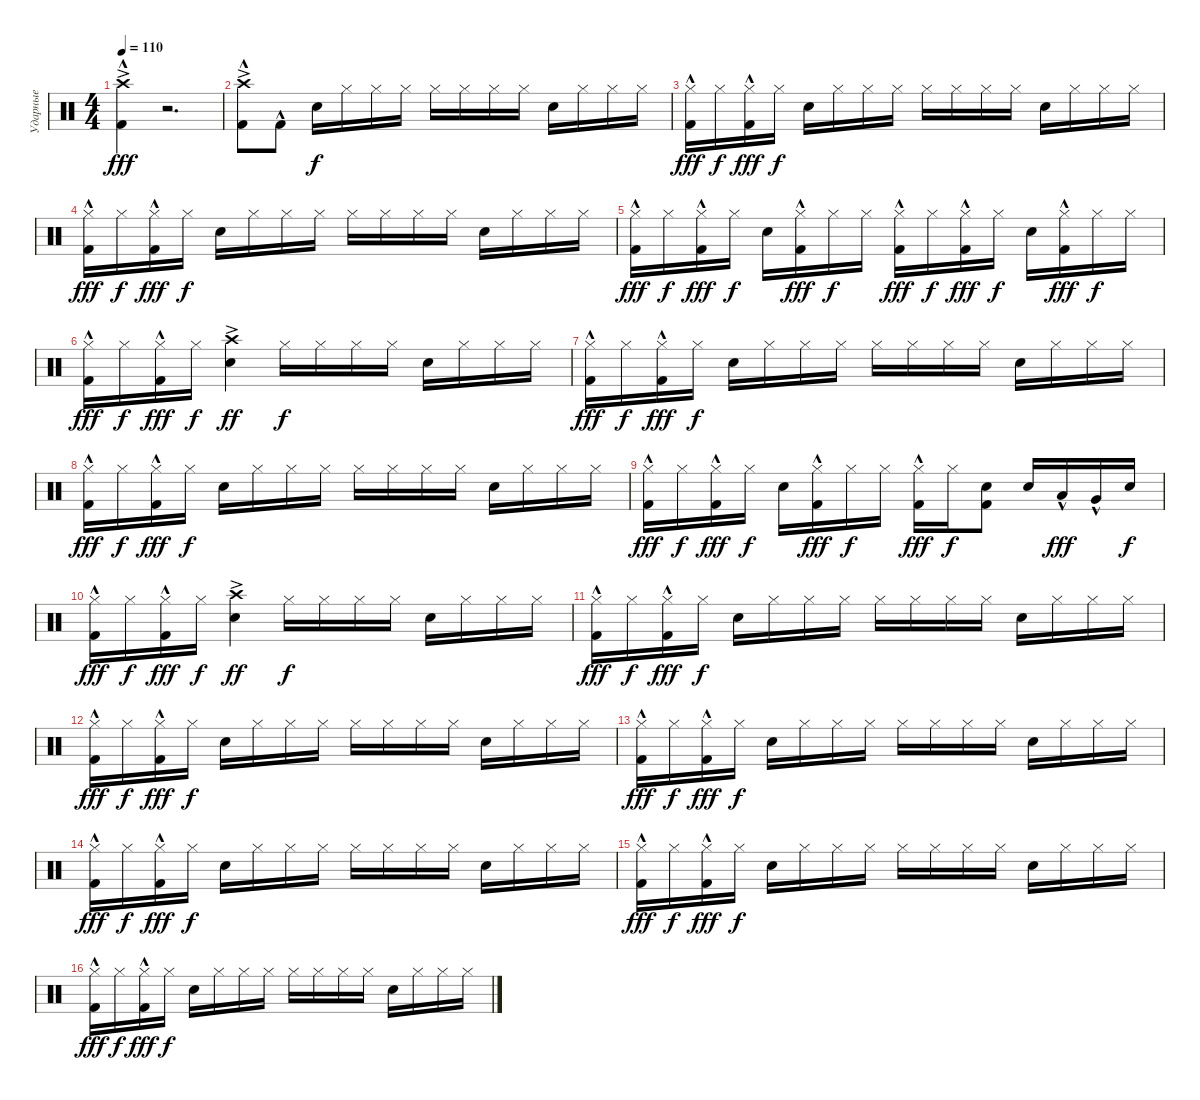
\track ("Ударные" "Ударные") {instrument percussion}
\staff {score}
\articulation defaults
\ts (4 4)
\tempo 110
\clef neutral
\ks c
("Crash high (hit)"{ac} "Kick (hit) 2"{hac}).4{dy fff} r.2{d} |
("Crash high (hit)"{ac} "Kick (hit) 2"{hac}).8 "Kick (hit) 2"{hac}.8 "Snare (hit) 2".16{dy f} "Hi-Hat (closed)".16 "Hi-Hat (closed)".16 "Hi-Hat (closed)".16 "Hi-Hat (closed)".16 "Hi-Hat (closed)".16 "Hi-Hat (closed)".16 "Hi-Hat (closed)".16 "Snare (hit) 2".16 "Hi-Hat (closed)".16 "Hi-Hat (closed)".16 "Hi-Hat (closed)".16 |
("Hi-Hat (closed)" "Kick (hit) 2"{hac}).16{dy fff} "Hi-Hat (closed)".16{dy f} ("Hi-Hat (closed)" "Kick (hit) 2"{hac}).16{dy fff} "Hi-Hat (closed)".16{dy f} "Snare (hit) 2".16 "Hi-Hat (closed)".16 "Hi-Hat (closed)".16 "Hi-Hat (closed)".16 "Hi-Hat (closed)".16 "Hi-Hat (closed)".16 "Hi-Hat (closed)".16 "Hi-Hat (closed)".16 "Snare (hit) 2".16 "Hi-Hat (closed)".16 "Hi-Hat (closed)".16 "Hi-Hat (closed)".16 |
("Hi-Hat (closed)" "Kick (hit) 2"{hac}).16{dy fff} "Hi-Hat (closed)".16{dy f} ("Hi-Hat (closed)" "Kick (hit) 2"{hac}).16{dy fff} "Hi-Hat (closed)".16{dy f} "Snare (hit) 2".16 "Hi-Hat (closed)".16 "Hi-Hat (closed)".16 "Hi-Hat (closed)".16 "Hi-Hat (closed)".16 "Hi-Hat (closed)".16 "Hi-Hat (closed)".16 "Hi-Hat (closed)".16 "Snare (hit) 2".16 "Hi-Hat (closed)".16 "Hi-Hat (closed)".16 "Hi-Hat (closed)".16 |
("Hi-Hat (closed)" "Kick (hit) 2"{hac}).16{dy fff} "Hi-Hat (closed)".16{dy f} ("Hi-Hat (closed)" "Kick (hit) 2"{hac}).16{dy fff} "Hi-Hat (closed)".16{dy f} "Snare (hit) 2".16 ("Hi-Hat (closed)" "Kick (hit) 2"{hac}).16{dy fff} "Hi-Hat (closed)".16{dy f} "Hi-Hat (closed)".16 ("Hi-Hat (closed)" "Kick (hit) 2"{hac}).16{dy fff} "Hi-Hat (closed)".16{dy f} ("Hi-Hat (closed)" "Kick (hit) 2"{hac}).16{dy fff} "Hi-Hat (closed)".16{dy f} "Snare (hit) 2".16 ("Hi-Hat (closed)" "Kick (hit) 2"{hac}).16{dy fff} "Hi-Hat (closed)".16{dy f} "Hi-Hat (closed)".16 |
("Hi-Hat (closed)" "Kick (hit) 2"{hac}).16{dy fff} "Hi-Hat (closed)".16{dy f} ("Hi-Hat (closed)" "Kick (hit) 2"{hac}).16{dy fff} "Hi-Hat (closed)".16{dy f} ("Crash high (hit)"{ac} "Snare (hit) 2").4{dy ff} "Hi-Hat (closed)".16{dy f} "Hi-Hat (closed)".16 "Hi-Hat (closed)".16 "Hi-Hat (closed)".16 "Snare (hit) 2".16 "Hi-Hat (closed)".16 "Hi-Hat (closed)".16 "Hi-Hat (closed)".16 |
("Hi-Hat (closed)" "Kick (hit) 2"{hac}).16{dy fff} "Hi-Hat (closed)".16{dy f} ("Hi-Hat (closed)" "Kick (hit) 2"{hac}).16{dy fff} "Hi-Hat (closed)".16{dy f} "Snare (hit) 2".16 "Hi-Hat (closed)".16 "Hi-Hat (closed)".16 "Hi-Hat (closed)".16 "Hi-Hat (closed)".16 "Hi-Hat (closed)".16 "Hi-Hat (closed)".16 "Hi-Hat (closed)".16 "Snare (hit) 2".16 "Hi-Hat (closed)".16 "Hi-Hat (closed)".16 "Hi-Hat (closed)".16 |
("Hi-Hat (closed)" "Kick (hit) 2"{hac}).16{dy fff} "Hi-Hat (closed)".16{dy f} ("Hi-Hat (closed)" "Kick (hit) 2"{hac}).16{dy fff} "Hi-Hat (closed)".16{dy f} "Snare (hit) 2".16 "Hi-Hat (closed)".16 "Hi-Hat (closed)".16 "Hi-Hat (closed)".16 "Hi-Hat (closed)".16 "Hi-Hat (closed)".16 "Hi-Hat (closed)".16 "Hi-Hat (closed)".16 "Snare (hit) 2".16 "Hi-Hat (closed)".16 "Hi-Hat (closed)".16 "Hi-Hat (closed)".16 |
("Hi-Hat (closed)" "Kick (hit) 2"{hac}).16{dy fff} "Hi-Hat (closed)".16{dy f} ("Hi-Hat (closed)" "Kick (hit) 2"{hac}).16{dy fff} "Hi-Hat (closed)".16{dy f} "Snare (hit) 2".16 ("Hi-Hat (closed)" "Kick (hit) 2"{hac}).16{dy fff} "Hi-Hat (closed)".16{dy f} "Hi-Hat (closed)".16 ("Hi-Hat (closed)" "Kick (hit) 2"{hac}).16{dy fff} "Hi-Hat (closed)".16{dy f} ("Snare (hit) 2" "Kick (hit) 2").8 "Snare (hit) 2".16 "Low Tom (hit)"{hac}.16{dy fff} "Very Low Tom (hit)"{hac}.16 "Snare (hit) 2".16{dy f} |
("Hi-Hat (closed)" "Kick (hit) 2"{hac}).16{dy fff} "Hi-Hat (closed)".16{dy f} ("Hi-Hat (closed)" "Kick (hit) 2"{hac}).16{dy fff} "Hi-Hat (closed)".16{dy f} ("Crash high (hit)"{ac} "Snare (hit) 2").4{dy ff} "Hi-Hat (closed)".16{dy f} "Hi-Hat (closed)".16 "Hi-Hat (closed)".16 "Hi-Hat (closed)".16 "Snare (hit) 2".16 "Hi-Hat (closed)".16 "Hi-Hat (closed)".16 "Hi-Hat (closed)".16 |
("Hi-Hat (closed)" "Kick (hit) 2"{hac}).16{dy fff} "Hi-Hat (closed)".16{dy f} ("Hi-Hat (closed)" "Kick (hit) 2"{hac}).16{dy fff} "Hi-Hat (closed)".16{dy f} "Snare (hit) 2".16 "Hi-Hat (closed)".16 "Hi-Hat (closed)".16 "Hi-Hat (closed)".16 "Hi-Hat (closed)".16 "Hi-Hat (closed)".16 "Hi-Hat (closed)".16 "Hi-Hat (closed)".16 "Snare (hit) 2".16 "Hi-Hat (closed)".16 "Hi-Hat (closed)".16 "Hi-Hat (closed)".16 |
("Hi-Hat (closed)" "Kick (hit) 2"{hac}).16{dy fff} "Hi-Hat (closed)".16{dy f} ("Hi-Hat (closed)" "Kick (hit) 2"{hac}).16{dy fff} "Hi-Hat (closed)".16{dy f} "Snare (hit) 2".16 "Hi-Hat (closed)".16 "Hi-Hat (closed)".16 "Hi-Hat (closed)".16 "Hi-Hat (closed)".16 "Hi-Hat (closed)".16 "Hi-Hat (closed)".16 "Hi-Hat (closed)".16 "Snare (hit) 2".16 "Hi-Hat (closed)".16 "Hi-Hat (closed)".16 "Hi-Hat (closed)".16 |
("Hi-Hat (closed)" "Kick (hit) 2"{hac}).16{dy fff} "Hi-Hat (closed)".16{dy f} ("Hi-Hat (closed)" "Kick (hit) 2"{hac}).16{dy fff} "Hi-Hat (closed)".16{dy f} "Snare (hit) 2".16 "Hi-Hat (closed)".16 "Hi-Hat (closed)".16 "Hi-Hat (closed)".16 "Hi-Hat (closed)".16 "Hi-Hat (closed)".16 "Hi-Hat (closed)".16 "Hi-Hat (closed)".16 "Snare (hit) 2".16 "Hi-Hat (closed)".16 "Hi-Hat (closed)".16 "Hi-Hat (closed)".16 |
("Hi-Hat (closed)" "Kick (hit) 2"{hac}).16{dy fff} "Hi-Hat (closed)".16{dy f} ("Hi-Hat (closed)" "Kick (hit) 2"{hac}).16{dy fff} "Hi-Hat (closed)".16{dy f} "Snare (hit) 2".16 "Hi-Hat (closed)".16 "Hi-Hat (closed)".16 "Hi-Hat (closed)".16 "Hi-Hat (closed)".16 "Hi-Hat (closed)".16 "Hi-Hat (closed)".16 "Hi-Hat (closed)".16 "Snare (hit) 2".16 "Hi-Hat (closed)".16 "Hi-Hat (closed)".16 "Hi-Hat (closed)".16 |
("Hi-Hat (closed)" "Kick (hit) 2"{hac}).16{dy fff} "Hi-Hat (closed)".16{dy f} ("Hi-Hat (closed)" "Kick (hit) 2"{hac}).16{dy fff} "Hi-Hat (closed)".16{dy f} "Snare (hit) 2".16 "Hi-Hat (closed)".16 "Hi-Hat (closed)".16 "Hi-Hat (closed)".16 "Hi-Hat (closed)".16 "Hi-Hat (closed)".16 "Hi-Hat (closed)".16 "Hi-Hat (closed)".16 "Snare (hit) 2".16 "Hi-Hat (closed)".16 "Hi-Hat (closed)".16 "Hi-Hat (closed)".16 |
("Hi-Hat (closed)" "Kick (hit) 2"{hac}).16{dy fff} "Hi-Hat (closed)".16{dy f} ("Hi-Hat (closed)" "Kick (hit) 2"{hac}).16{dy fff} "Hi-Hat (closed)".16{dy f} "Snare (hit) 2".16 "Hi-Hat (closed)".16 "Hi-Hat (closed)".16 "Hi-Hat (closed)".16 "Hi-Hat (closed)".16 "Hi-Hat (closed)".16 "Hi-Hat (closed)".16 "Hi-Hat (closed)".16 "Snare (hit) 2".16 "Hi-Hat (closed)".16 "Hi-Hat (closed)".16 "Hi-Hat (closed)".16
